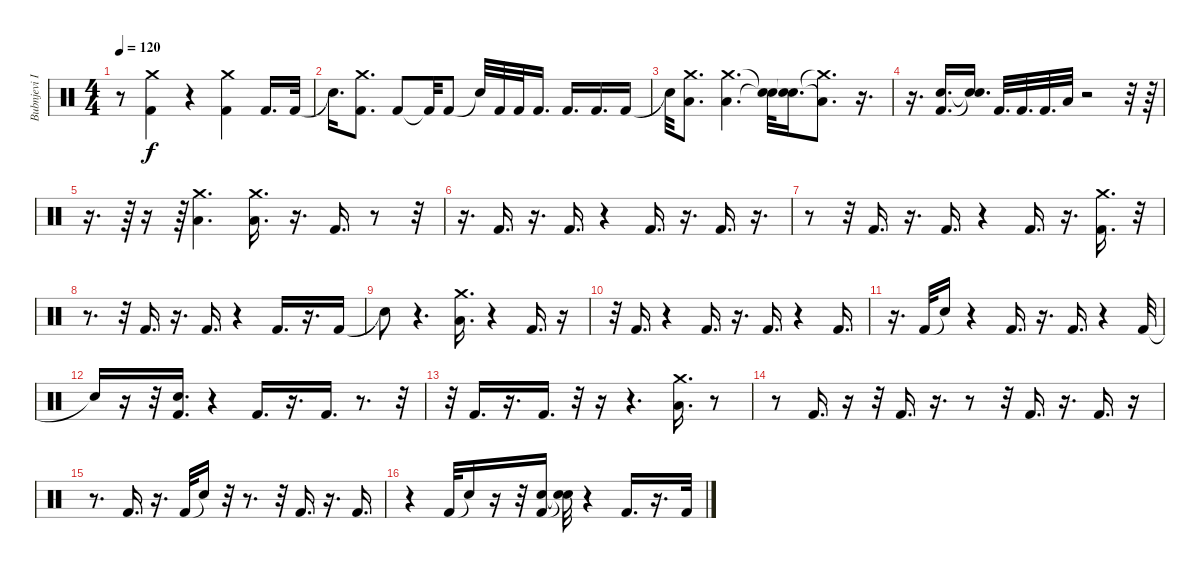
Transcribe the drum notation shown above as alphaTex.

\track ("Bubnjevi Ipe Ivandic" "Bubnjevi I") {instrument percussion}
\staff {score}
\articulation defaults
\ts (4 4)
\tempo 120
\clef neutral
\ks c
r.8{dy f} ("Kick (hit) 2" "Crash medium (hit)").4 r.4 ("Kick (hit) 2" "Crash medium (hit)").4 "Kick (hit) 2".16{d} "Kick (hit) 2".32 |
"Snare (hit)"{t}.16{d} ("Kick (hit) 2" "Crash medium (hit)").8{d} "Kick (hit) 2".8 "Kick (hit) 2"{t}.32 "Kick (hit) 2".8 "Snare (hit)"{t}.32 "Kick (hit) 2".32 "Kick (hit) 2".32 "Kick (hit) 2".16{d} "Kick (hit) 2".16{d} "Kick (hit) 2".16{d} "Kick (hit) 2".16 |
"Snare (hit)"{t}.32 ("Low Tom (hit)" "Crash medium (hit)").8{d} ("Low Tom (hit)" "Crash medium (hit)").4{d} ("Snare (hit)"{t} "Snare (hit)"{t}).32 ("Snare (hit)"{t} "Snare (hit)"{t}).16{d} ("Low Tom (hit)"{t} "Crash medium (hit)"{t}).8{d} r.16{d} |
r.16{d} ("Kick (hit) 2" "Snare (hit) 2").16{d} ("Snare (hit)"{t} "Snare (hit)"{t}).16{d} "Kick (hit) 2".32{d} "Kick (hit) 2".32{d} "Kick (hit) 2".32{d} "Low Tom (hit)".32 r.2 r.32 r.64 |
r.16{d} r.64 r.16 r.64 ("Low Tom (hit)" "Crash medium (hit)").4{d} ("Low Tom (hit)" "Crash medium (hit)").16{d} r.16{d} "Kick (hit) 2".16{d} r.8 r.32 |
r.16{d} "Kick (hit) 2".16{d} r.16{d} "Kick (hit) 2".16{d} r.4 "Kick (hit) 2".16{d} r.16{d} "Kick (hit) 2".16{d} r.16{d} |
r.8 r.32 "Kick (hit) 2".16{d} r.16{d} "Kick (hit) 2".16{d} r.4 "Kick (hit) 2".16{d} r.16{d} ("Kick (hit) 2" "Crash medium (hit)").16{d} r.32 |
r.8{d} r.32 "Kick (hit) 2".16{d} r.16{d} "Kick (hit) 2".16{d} r.4 "Kick (hit) 2".16{d} r.16{d} "Kick (hit) 2".16 |
"Snare (hit)"{t}.8 r.4{d} ("Low Tom (hit)" "Crash medium (hit)").16{d} r.4 "Kick (hit) 2".16{d} r.16 |
r.32 "Kick (hit) 2".16{d} r.4 "Kick (hit) 2".16{d} r.16{d} "Kick (hit) 2".16{d} r.4 "Kick (hit) 2".16{d} |
r.16{d} "Kick (hit) 2".32 "Snare (hit)"{t}.16 r.4 "Kick (hit) 2".16{d} r.16{d} "Kick (hit) 2".16{d} r.4 "Kick (hit) 2".32 |
"Snare (hit)"{t}.16 r.16 r.32 ("Kick (hit) 2" "Snare (hit) 2").16{d} r.4 "Kick (hit) 2".16{d} r.16{d} "Kick (hit) 2".16{d} r.8{d} r.32 |
r.32 "Kick (hit) 2".16{d} r.16{d} "Kick (hit) 2".16{d} r.32 r.16 r.4{d} ("Low Tom (hit)" "Crash medium (hit)").16{d} r.8 |
r.8 "Kick (hit) 2".16{d} r.16 r.32 "Kick (hit) 2".16{d} r.16{d} r.8 r.32 "Kick (hit) 2".16{d} r.16{d} "Kick (hit) 2".16{d} r.16 |
r.8{d} "Kick (hit) 2".16{d} r.16{d} "Kick (hit) 2".32 "Snare (hit)"{t}.16 r.32 r.8{d} r.32 "Kick (hit) 2".16{d} r.16{d} "Kick (hit) 2".16{d} |
r.4 "Kick (hit) 2".32 "Snare (hit)"{t}.16 r.16 r.32 ("Kick (hit) 2" "Snare (hit) 2").16 ("Snare (hit)"{t} "Snare (hit)"{t}).32 r.4 "Kick (hit) 2".16{d} r.16{d} "Kick (hit) 2".32
